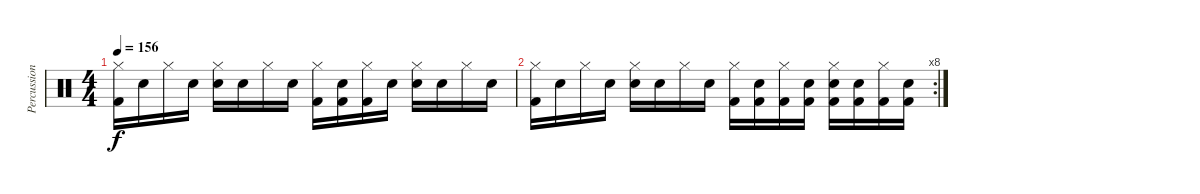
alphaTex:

\track ("Percussion" "Percussion") {instrument percussion}
\staff {score}
\articulation defaults
\ts (4 4)
\tempo 156
\clef neutral
\ks c
("Hi-Hat (closed)" "Kick (hit) 2").16{dy f} "Snare (hit)".16 "Hi-Hat (closed)".16 "Snare (hit)".16 ("Hi-Hat (closed)" "Snare (hit) 2").16 "Snare (hit)".16 "Hi-Hat (closed)".16 "Snare (hit)".16 ("Hi-Hat (closed)" "Kick (hit) 2").16 ("Snare (hit)" "Kick (hit) 2").16 ("Hi-Hat (closed)" "Kick (hit) 2").16 "Snare (hit)".16 ("Hi-Hat (closed)" "Snare (hit) 2").16 "Snare (hit)".16 "Hi-Hat (closed)".16 "Snare (hit)".16 |
\rc 8
("Hi-Hat (closed)" "Kick (hit) 2").16 "Snare (hit)".16 "Hi-Hat (closed)".16 "Snare (hit)".16 ("Hi-Hat (closed)" "Snare (hit) 2").16 "Snare (hit)".16 "Hi-Hat (closed)".16 "Snare (hit)".16 ("Hi-Hat (closed)" "Kick (hit) 2").16 ("Snare (hit)" "Kick (hit) 2").16 ("Hi-Hat (closed)" "Kick (hit) 2").16 ("Snare (hit)" "Kick (hit) 2").16 ("Hi-Hat (closed)" "Snare (hit) 2" "Kick (hit) 2").16 ("Snare (hit)" "Kick (hit) 2").16 ("Hi-Hat (closed)" "Kick (hit) 2").16 ("Snare (hit)" "Kick (hit) 2").16
